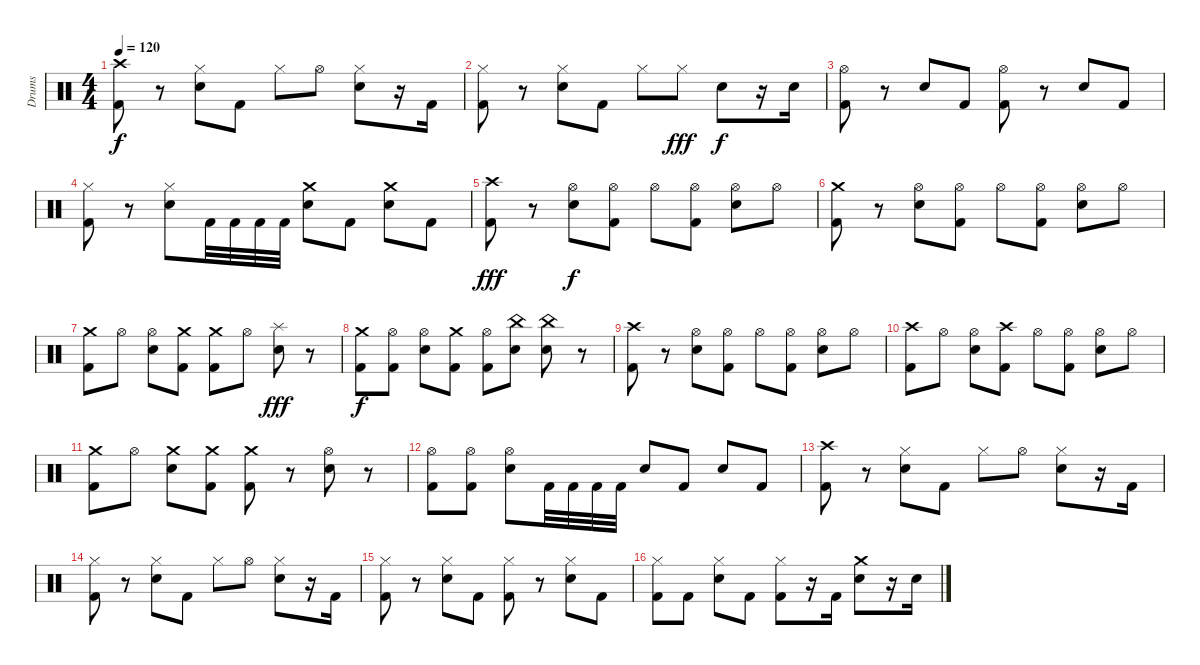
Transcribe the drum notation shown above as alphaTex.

\track ("Drums" "Drums") {instrument percussion}
\staff {score}
\articulation defaults
\ts (4 4)
\tempo 120
\clef neutral
\ks c
("Crash high (hit)" "Kick (hit) 2").8{dy f} r.8 ("Hi-Hat (closed)" "Electric Snare (hit)").8 "Kick (hit) 2".8 "Hi-Hat (closed)".8 "Hi-Hat (open)".8 ("Hi-Hat (closed)" "Electric Snare (hit)").8 r.16 "Kick (hit) 2".16 |
("Hi-Hat (closed)" "Kick (hit) 2").8 r.8 ("Hi-Hat (closed)" "Electric Snare (hit)").8 "Kick (hit) 2".8 "Hi-Hat (closed)".8 "Hi-Hat (closed)".8{dy fff} "Electric Snare (hit)".8{dy f} r.16 "Electric Snare (hit)".16 |
("Hi-Hat (open)" "Kick (hit) 2").8 r.8 "Electric Snare (hit)".8 "Kick (hit) 2".8 ("Hi-Hat (open)" "Kick (hit) 2").8 r.8 "Electric Snare (hit)".8 "Kick (hit) 2".8 |
("Hi-Hat (closed)" "Kick (hit) 2").8 r.8 ("Hi-Hat (closed)" "Electric Snare (hit)").8 "Kick (hit) 2".32 "Kick (hit) 2".32 "Kick (hit) 2".32 "Kick (hit) 2".32 ("Crash medium (hit)" "Electric Snare (hit)").8 "Kick (hit) 2".8 ("Crash medium (hit)" "Electric Snare (hit)").8 "Kick (hit) 2".8 |
("Crash high (hit)" "Kick (hit) 2").8{dy fff} r.8 ("Hi-Hat (open)" "Electric Snare (hit)").8{dy f} ("Hi-Hat (open)" "Kick (hit) 2").8 "Hi-Hat (open)".8 ("Hi-Hat (open)" "Kick (hit) 2").8 ("Hi-Hat (open)" "Electric Snare (hit)").8 "Hi-Hat (open)".8 |
("Crash medium (hit)" "Kick (hit) 2").8 r.8 ("Hi-Hat (open)" "Electric Snare (hit)").8 ("Hi-Hat (open)" "Kick (hit) 2").8 "Hi-Hat (open)".8 ("Hi-Hat (open)" "Kick (hit) 2").8 ("Hi-Hat (open)" "Electric Snare (hit)").8 "Hi-Hat (open)".8 |
("Crash medium (hit)" "Kick (hit) 2").8 "Hi-Hat (open)".8 ("Hi-Hat (open)" "Electric Snare (hit)").8 ("Crash medium (hit)" "Kick (hit) 2").8 ("Crash medium (hit)" "Kick (hit) 2").8 "Hi-Hat (open)".8 ("Splash (hit)" "Electric Snare (hit)").8{dy fff} r.8 |
("Crash medium (hit)" "Kick (hit) 2").8{dy f} ("Hi-Hat (open)" "Kick (hit) 2").8 ("Hi-Hat (open)" "Electric Snare (hit)").8 ("Crash medium (hit)" "Kick (hit) 2").8 ("Hi-Hat (open)" "Kick (hit) 2").8 ("China (hit)" "Electric Snare (hit)").8 ("China (hit)" "Electric Snare (hit)").8 r.8 |
("Crash high (hit)" "Kick (hit) 2").8 r.8 ("Hi-Hat (open)" "Electric Snare (hit)").8 ("Hi-Hat (open)" "Kick (hit) 2").8 "Hi-Hat (open)".8 ("Hi-Hat (open)" "Kick (hit) 2").8 ("Hi-Hat (open)" "Electric Snare (hit)").8 "Hi-Hat (open)".8 |
("Crash high (hit)" "Kick (hit) 2").8 "Hi-Hat (open)".8 ("Hi-Hat (open)" "Electric Snare (hit)").8 ("Crash high (hit)" "Kick (hit) 2").8 "Hi-Hat (open)".8 ("Hi-Hat (open)" "Kick (hit) 2").8 ("Hi-Hat (open)" "Electric Snare (hit)").8 "Hi-Hat (open)".8 |
("Crash medium (hit)" "Kick (hit) 2").8 "Hi-Hat (open)".8 ("Crash medium (hit)" "Electric Snare (hit)").8 ("Crash medium (hit)" "Kick (hit) 2").8 ("Crash medium (hit)" "Kick (hit) 2").8 r.8 ("Hi-Hat (open)" "Electric Snare (hit)").8 r.8 |
("Hi-Hat (open)" "Kick (hit) 2").8 ("Hi-Hat (open)" "Kick (hit) 2").8 ("Hi-Hat (open)" "Electric Snare (hit)").8 "Kick (hit) 2".32 "Kick (hit) 2".32 "Kick (hit) 2".32 "Kick (hit) 2".32 "Electric Snare (hit)".8 "Kick (hit) 2".8 "Electric Snare (hit)".8 "Kick (hit) 2".8 |
("Crash high (hit)" "Kick (hit) 2").8 r.8 ("Hi-Hat (closed)" "Electric Snare (hit)").8 "Kick (hit) 2".8 "Hi-Hat (closed)".8 "Hi-Hat (open)".8 ("Hi-Hat (closed)" "Electric Snare (hit)").8 r.16 "Kick (hit) 2".16 |
("Hi-Hat (closed)" "Kick (hit) 2").8 r.8 ("Hi-Hat (closed)" "Electric Snare (hit)").8 "Kick (hit) 2".8 "Hi-Hat (closed)".8 "Hi-Hat (open)".8 ("Hi-Hat (closed)" "Electric Snare (hit)").8 r.16 "Kick (hit) 2".16 |
("Hi-Hat (closed)" "Kick (hit) 2").8 r.8 ("Hi-Hat (closed)" "Electric Snare (hit)").8 "Kick (hit) 2".8 ("Hi-Hat (closed)" "Kick (hit) 2").8 r.8 ("Hi-Hat (closed)" "Electric Snare (hit)").8 "Kick (hit) 2".8 |
("Hi-Hat (closed)" "Kick (hit) 2").8 "Kick (hit) 2".8 ("Hi-Hat (closed)" "Electric Snare (hit)").8 "Kick (hit) 2".8 ("Hi-Hat (closed)" "Kick (hit) 2").8 r.16 "Kick (hit) 2".16 ("Crash medium (hit)" "Electric Snare (hit)").8 r.16 "Electric Snare (hit)".16
